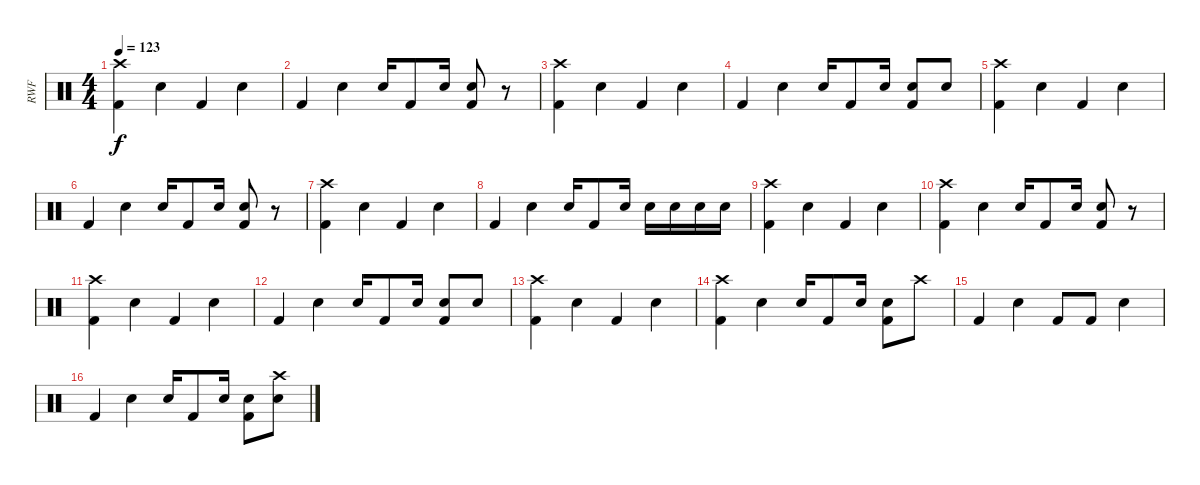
\track ("RWF" "RWF") {instrument percussion}
\staff {score}
\articulation defaults
\ts (4 4)
\tempo 123
\clef neutral
\ks c
("Kick (hit) 2" "Crash high (hit)").4{dy f} "Electric Snare (hit)".4 "Kick (hit) 2".4 "Electric Snare (hit)".4 |
"Kick (hit) 2".4 "Electric Snare (hit)".4 "Electric Snare (hit)".16 "Kick (hit) 2".8 "Electric Snare (hit)".16 ("Kick (hit) 2" "Electric Snare (hit)").8 r.8 |
("Kick (hit) 2" "Crash high (hit)").4 "Electric Snare (hit)".4 "Kick (hit) 2".4 "Electric Snare (hit)".4 |
"Kick (hit) 2".4 "Electric Snare (hit)".4 "Electric Snare (hit)".16 "Kick (hit) 2".8 "Electric Snare (hit)".16 ("Kick (hit) 2" "Electric Snare (hit)").8 "Electric Snare (hit)".8 |
("Kick (hit) 2" "Crash high (hit)").4 "Electric Snare (hit)".4 "Kick (hit) 2".4 "Electric Snare (hit)".4 |
"Kick (hit) 2".4 "Electric Snare (hit)".4 "Electric Snare (hit)".16 "Kick (hit) 2".8 "Electric Snare (hit)".16 ("Kick (hit) 2" "Electric Snare (hit)").8 r.8 |
("Kick (hit) 2" "Crash high (hit)").4 "Electric Snare (hit)".4 "Kick (hit) 2".4 "Electric Snare (hit)".4 |
"Kick (hit) 2".4 "Electric Snare (hit)".4 "Electric Snare (hit)".16 "Kick (hit) 2".8 "Electric Snare (hit)".16 "Electric Snare (hit)".16 "Electric Snare (hit)".16 "Electric Snare (hit)".16 "Electric Snare (hit)".16 |
("Kick (hit) 2" "Crash high (hit)").4 "Electric Snare (hit)".4 "Kick (hit) 2".4 "Electric Snare (hit)".4 |
("Kick (hit) 2" "Crash high (hit)").4 "Electric Snare (hit)".4 "Electric Snare (hit)".16 "Kick (hit) 2".8 "Electric Snare (hit)".16 ("Kick (hit) 2" "Electric Snare (hit)").8 r.8 |
("Kick (hit) 2" "Crash high (hit)").4 "Electric Snare (hit)".4 "Kick (hit) 2".4 "Electric Snare (hit)".4 |
"Kick (hit) 2".4 "Electric Snare (hit)".4 "Electric Snare (hit)".16 "Kick (hit) 2".8 "Electric Snare (hit)".16 ("Kick (hit) 2" "Electric Snare (hit)").8 "Electric Snare (hit)".8 |
("Kick (hit) 2" "Crash high (hit)").4 "Electric Snare (hit)".4 "Kick (hit) 2".4 "Electric Snare (hit)".4 |
("Kick (hit) 2" "Crash high (hit)").4 "Electric Snare (hit)".4 "Electric Snare (hit)".16 "Kick (hit) 2".8 "Electric Snare (hit)".16 ("Kick (hit) 2" "Electric Snare (hit)").8 "Crash high (hit)".8 |
"Kick (hit) 2".4 "Electric Snare (hit)".4 "Kick (hit) 2".8 "Kick (hit) 2".8 "Electric Snare (hit)".4 |
"Kick (hit) 2".4 "Electric Snare (hit)".4 "Electric Snare (hit)".16 "Kick (hit) 2".8 "Electric Snare (hit)".16 ("Kick (hit) 2" "Electric Snare (hit)").8 ("Electric Snare (hit)" "Crash high (hit)").8
